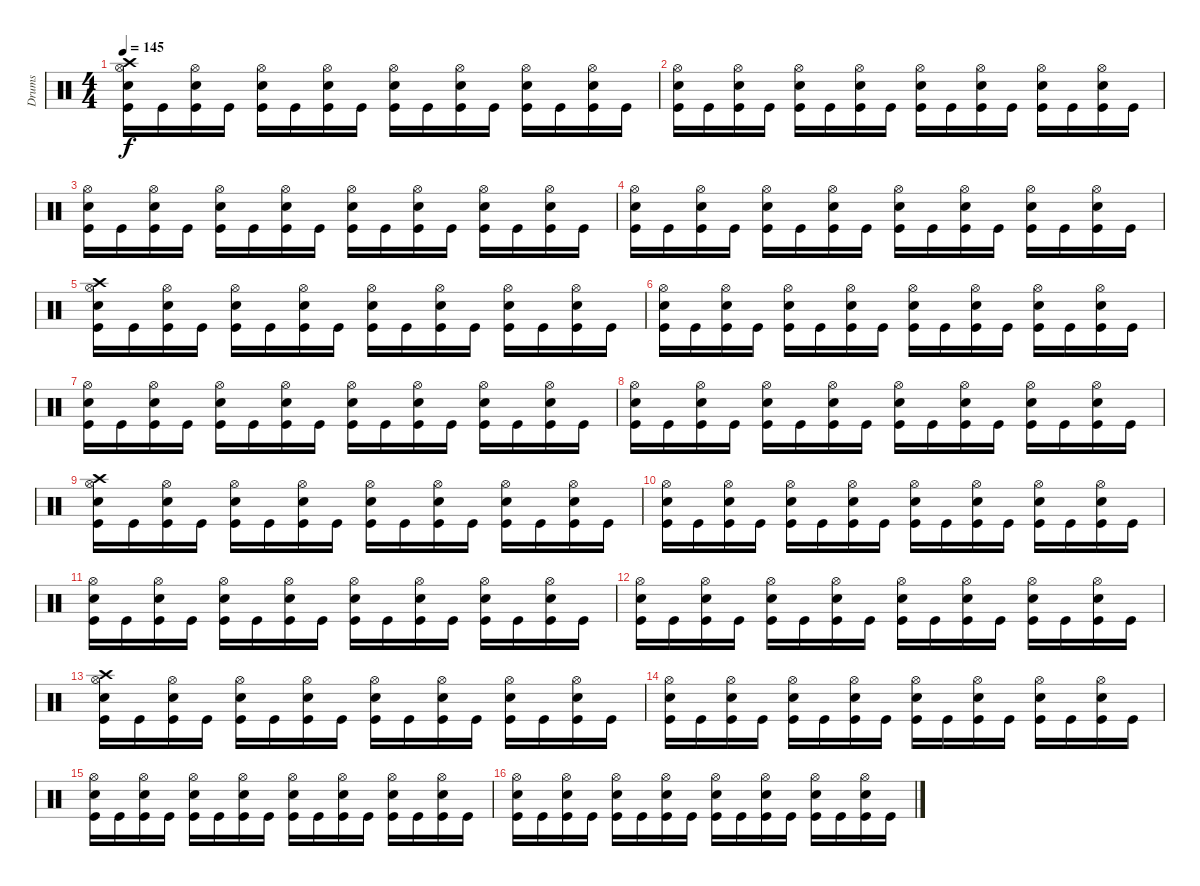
\track ("Drums" "Drums") {instrument percussion}
\staff {score}
\articulation defaults
\ts (4 4)
\tempo 145
\clef neutral
\ks c
("Crash high (hit)" "Hi-Hat (open)" "Electric Snare (hit)" "Kick (hit)").16{dy f} "Kick (hit)".16 ("Hi-Hat (open)" "Electric Snare (hit)" "Kick (hit)").16 "Kick (hit)".16 ("Hi-Hat (open)" "Electric Snare (hit)" "Kick (hit)").16 "Kick (hit)".16 ("Hi-Hat (open)" "Electric Snare (hit)" "Kick (hit)").16 "Kick (hit)".16 ("Hi-Hat (open)" "Electric Snare (hit)" "Kick (hit)").16 "Kick (hit)".16 ("Hi-Hat (open)" "Electric Snare (hit)" "Kick (hit)").16 "Kick (hit)".16 ("Hi-Hat (open)" "Electric Snare (hit)" "Kick (hit)").16 "Kick (hit)".16 ("Hi-Hat (open)" "Electric Snare (hit)" "Kick (hit)").16 "Kick (hit)".16 |
("Hi-Hat (open)" "Electric Snare (hit)" "Kick (hit)").16 "Kick (hit)".16 ("Hi-Hat (open)" "Electric Snare (hit)" "Kick (hit)").16 "Kick (hit)".16 ("Hi-Hat (open)" "Electric Snare (hit)" "Kick (hit)").16 "Kick (hit)".16 ("Hi-Hat (open)" "Electric Snare (hit)" "Kick (hit)").16 "Kick (hit)".16 ("Hi-Hat (open)" "Electric Snare (hit)" "Kick (hit)").16 "Kick (hit)".16 ("Hi-Hat (open)" "Electric Snare (hit)" "Kick (hit)").16 "Kick (hit)".16 ("Hi-Hat (open)" "Electric Snare (hit)" "Kick (hit)").16 "Kick (hit)".16 ("Hi-Hat (open)" "Electric Snare (hit)" "Kick (hit)").16 "Kick (hit)".16 |
("Hi-Hat (open)" "Electric Snare (hit)" "Kick (hit)").16 "Kick (hit)".16 ("Hi-Hat (open)" "Electric Snare (hit)" "Kick (hit)").16 "Kick (hit)".16 ("Hi-Hat (open)" "Electric Snare (hit)" "Kick (hit)").16 "Kick (hit)".16 ("Hi-Hat (open)" "Electric Snare (hit)" "Kick (hit)").16 "Kick (hit)".16 ("Hi-Hat (open)" "Electric Snare (hit)" "Kick (hit)").16 "Kick (hit)".16 ("Hi-Hat (open)" "Electric Snare (hit)" "Kick (hit)").16 "Kick (hit)".16 ("Hi-Hat (open)" "Electric Snare (hit)" "Kick (hit)").16 "Kick (hit)".16 ("Hi-Hat (open)" "Electric Snare (hit)" "Kick (hit)").16 "Kick (hit)".16 |
("Hi-Hat (open)" "Electric Snare (hit)" "Kick (hit)").16 "Kick (hit)".16 ("Hi-Hat (open)" "Electric Snare (hit)" "Kick (hit)").16 "Kick (hit)".16 ("Hi-Hat (open)" "Electric Snare (hit)" "Kick (hit)").16 "Kick (hit)".16 ("Hi-Hat (open)" "Electric Snare (hit)" "Kick (hit)").16 "Kick (hit)".16 ("Hi-Hat (open)" "Electric Snare (hit)" "Kick (hit)").16 "Kick (hit)".16 ("Hi-Hat (open)" "Electric Snare (hit)" "Kick (hit)").16 "Kick (hit)".16 ("Hi-Hat (open)" "Electric Snare (hit)" "Kick (hit)").16 "Kick (hit)".16 ("Hi-Hat (open)" "Electric Snare (hit)" "Kick (hit)").16 "Kick (hit)".16 |
("Crash high (hit)" "Hi-Hat (open)" "Electric Snare (hit)" "Kick (hit)").16 "Kick (hit)".16 ("Hi-Hat (open)" "Electric Snare (hit)" "Kick (hit)").16 "Kick (hit)".16 ("Hi-Hat (open)" "Electric Snare (hit)" "Kick (hit)").16 "Kick (hit)".16 ("Hi-Hat (open)" "Electric Snare (hit)" "Kick (hit)").16 "Kick (hit)".16 ("Hi-Hat (open)" "Electric Snare (hit)" "Kick (hit)").16 "Kick (hit)".16 ("Hi-Hat (open)" "Electric Snare (hit)" "Kick (hit)").16 "Kick (hit)".16 ("Hi-Hat (open)" "Electric Snare (hit)" "Kick (hit)").16 "Kick (hit)".16 ("Hi-Hat (open)" "Electric Snare (hit)" "Kick (hit)").16 "Kick (hit)".16 |
("Hi-Hat (open)" "Electric Snare (hit)" "Kick (hit)").16 "Kick (hit)".16 ("Hi-Hat (open)" "Electric Snare (hit)" "Kick (hit)").16 "Kick (hit)".16 ("Hi-Hat (open)" "Electric Snare (hit)" "Kick (hit)").16 "Kick (hit)".16 ("Hi-Hat (open)" "Electric Snare (hit)" "Kick (hit)").16 "Kick (hit)".16 ("Hi-Hat (open)" "Electric Snare (hit)" "Kick (hit)").16 "Kick (hit)".16 ("Hi-Hat (open)" "Electric Snare (hit)" "Kick (hit)").16 "Kick (hit)".16 ("Hi-Hat (open)" "Electric Snare (hit)" "Kick (hit)").16 "Kick (hit)".16 ("Hi-Hat (open)" "Electric Snare (hit)" "Kick (hit)").16 "Kick (hit)".16 |
("Hi-Hat (open)" "Electric Snare (hit)" "Kick (hit)").16 "Kick (hit)".16 ("Hi-Hat (open)" "Electric Snare (hit)" "Kick (hit)").16 "Kick (hit)".16 ("Hi-Hat (open)" "Electric Snare (hit)" "Kick (hit)").16 "Kick (hit)".16 ("Hi-Hat (open)" "Electric Snare (hit)" "Kick (hit)").16 "Kick (hit)".16 ("Hi-Hat (open)" "Electric Snare (hit)" "Kick (hit)").16 "Kick (hit)".16 ("Hi-Hat (open)" "Electric Snare (hit)" "Kick (hit)").16 "Kick (hit)".16 ("Hi-Hat (open)" "Electric Snare (hit)" "Kick (hit)").16 "Kick (hit)".16 ("Hi-Hat (open)" "Electric Snare (hit)" "Kick (hit)").16 "Kick (hit)".16 |
("Hi-Hat (open)" "Electric Snare (hit)" "Kick (hit)").16 "Kick (hit)".16 ("Hi-Hat (open)" "Electric Snare (hit)" "Kick (hit)").16 "Kick (hit)".16 ("Hi-Hat (open)" "Electric Snare (hit)" "Kick (hit)").16 "Kick (hit)".16 ("Hi-Hat (open)" "Electric Snare (hit)" "Kick (hit)").16 "Kick (hit)".16 ("Hi-Hat (open)" "Electric Snare (hit)" "Kick (hit)").16 "Kick (hit)".16 ("Hi-Hat (open)" "Electric Snare (hit)" "Kick (hit)").16 "Kick (hit)".16 ("Hi-Hat (open)" "Electric Snare (hit)" "Kick (hit)").16 "Kick (hit)".16 ("Hi-Hat (open)" "Electric Snare (hit)" "Kick (hit)").16 "Kick (hit)".16 |
("Crash high (hit)" "Hi-Hat (open)" "Electric Snare (hit)" "Kick (hit)").16 "Kick (hit)".16 ("Hi-Hat (open)" "Electric Snare (hit)" "Kick (hit)").16 "Kick (hit)".16 ("Hi-Hat (open)" "Electric Snare (hit)" "Kick (hit)").16 "Kick (hit)".16 ("Hi-Hat (open)" "Electric Snare (hit)" "Kick (hit)").16 "Kick (hit)".16 ("Hi-Hat (open)" "Electric Snare (hit)" "Kick (hit)").16 "Kick (hit)".16 ("Hi-Hat (open)" "Electric Snare (hit)" "Kick (hit)").16 "Kick (hit)".16 ("Hi-Hat (open)" "Electric Snare (hit)" "Kick (hit)").16 "Kick (hit)".16 ("Hi-Hat (open)" "Electric Snare (hit)" "Kick (hit)").16 "Kick (hit)".16 |
("Hi-Hat (open)" "Electric Snare (hit)" "Kick (hit)").16 "Kick (hit)".16 ("Hi-Hat (open)" "Electric Snare (hit)" "Kick (hit)").16 "Kick (hit)".16 ("Hi-Hat (open)" "Electric Snare (hit)" "Kick (hit)").16 "Kick (hit)".16 ("Hi-Hat (open)" "Electric Snare (hit)" "Kick (hit)").16 "Kick (hit)".16 ("Hi-Hat (open)" "Electric Snare (hit)" "Kick (hit)").16 "Kick (hit)".16 ("Hi-Hat (open)" "Electric Snare (hit)" "Kick (hit)").16 "Kick (hit)".16 ("Hi-Hat (open)" "Electric Snare (hit)" "Kick (hit)").16 "Kick (hit)".16 ("Hi-Hat (open)" "Electric Snare (hit)" "Kick (hit)").16 "Kick (hit)".16 |
("Hi-Hat (open)" "Electric Snare (hit)" "Kick (hit)").16 "Kick (hit)".16 ("Hi-Hat (open)" "Electric Snare (hit)" "Kick (hit)").16 "Kick (hit)".16 ("Hi-Hat (open)" "Electric Snare (hit)" "Kick (hit)").16 "Kick (hit)".16 ("Hi-Hat (open)" "Electric Snare (hit)" "Kick (hit)").16 "Kick (hit)".16 ("Hi-Hat (open)" "Electric Snare (hit)" "Kick (hit)").16 "Kick (hit)".16 ("Hi-Hat (open)" "Electric Snare (hit)" "Kick (hit)").16 "Kick (hit)".16 ("Hi-Hat (open)" "Electric Snare (hit)" "Kick (hit)").16 "Kick (hit)".16 ("Hi-Hat (open)" "Electric Snare (hit)" "Kick (hit)").16 "Kick (hit)".16 |
("Hi-Hat (open)" "Electric Snare (hit)" "Kick (hit)").16 "Kick (hit)".16 ("Hi-Hat (open)" "Electric Snare (hit)" "Kick (hit)").16 "Kick (hit)".16 ("Hi-Hat (open)" "Electric Snare (hit)" "Kick (hit)").16 "Kick (hit)".16 ("Hi-Hat (open)" "Electric Snare (hit)" "Kick (hit)").16 "Kick (hit)".16 ("Hi-Hat (open)" "Electric Snare (hit)" "Kick (hit)").16 "Kick (hit)".16 ("Hi-Hat (open)" "Electric Snare (hit)" "Kick (hit)").16 "Kick (hit)".16 ("Hi-Hat (open)" "Electric Snare (hit)" "Kick (hit)").16 "Kick (hit)".16 ("Hi-Hat (open)" "Electric Snare (hit)" "Kick (hit)").16 "Kick (hit)".16 |
("Crash high (hit)" "Hi-Hat (open)" "Electric Snare (hit)" "Kick (hit)").16 "Kick (hit)".16 ("Hi-Hat (open)" "Electric Snare (hit)" "Kick (hit)").16 "Kick (hit)".16 ("Hi-Hat (open)" "Electric Snare (hit)" "Kick (hit)").16 "Kick (hit)".16 ("Hi-Hat (open)" "Electric Snare (hit)" "Kick (hit)").16 "Kick (hit)".16 ("Hi-Hat (open)" "Electric Snare (hit)" "Kick (hit)").16 "Kick (hit)".16 ("Hi-Hat (open)" "Electric Snare (hit)" "Kick (hit)").16 "Kick (hit)".16 ("Hi-Hat (open)" "Electric Snare (hit)" "Kick (hit)").16 "Kick (hit)".16 ("Hi-Hat (open)" "Electric Snare (hit)" "Kick (hit)").16 "Kick (hit)".16 |
("Hi-Hat (open)" "Electric Snare (hit)" "Kick (hit)").16 "Kick (hit)".16 ("Hi-Hat (open)" "Electric Snare (hit)" "Kick (hit)").16 "Kick (hit)".16 ("Hi-Hat (open)" "Electric Snare (hit)" "Kick (hit)").16 "Kick (hit)".16 ("Hi-Hat (open)" "Electric Snare (hit)" "Kick (hit)").16 "Kick (hit)".16 ("Hi-Hat (open)" "Electric Snare (hit)" "Kick (hit)").16 "Kick (hit)".16 ("Hi-Hat (open)" "Electric Snare (hit)" "Kick (hit)").16 "Kick (hit)".16 ("Hi-Hat (open)" "Electric Snare (hit)" "Kick (hit)").16 "Kick (hit)".16 ("Hi-Hat (open)" "Electric Snare (hit)" "Kick (hit)").16 "Kick (hit)".16 |
("Hi-Hat (open)" "Electric Snare (hit)" "Kick (hit)").16 "Kick (hit)".16 ("Hi-Hat (open)" "Electric Snare (hit)" "Kick (hit)").16 "Kick (hit)".16 ("Hi-Hat (open)" "Electric Snare (hit)" "Kick (hit)").16 "Kick (hit)".16 ("Hi-Hat (open)" "Electric Snare (hit)" "Kick (hit)").16 "Kick (hit)".16 ("Hi-Hat (open)" "Electric Snare (hit)" "Kick (hit)").16 "Kick (hit)".16 ("Hi-Hat (open)" "Electric Snare (hit)" "Kick (hit)").16 "Kick (hit)".16 ("Hi-Hat (open)" "Electric Snare (hit)" "Kick (hit)").16 "Kick (hit)".16 ("Hi-Hat (open)" "Electric Snare (hit)" "Kick (hit)").16 "Kick (hit)".16 |
("Hi-Hat (open)" "Electric Snare (hit)" "Kick (hit)").16 "Kick (hit)".16 ("Hi-Hat (open)" "Electric Snare (hit)" "Kick (hit)").16 "Kick (hit)".16 ("Hi-Hat (open)" "Electric Snare (hit)" "Kick (hit)").16 "Kick (hit)".16 ("Hi-Hat (open)" "Electric Snare (hit)" "Kick (hit)").16 "Kick (hit)".16 ("Hi-Hat (open)" "Electric Snare (hit)" "Kick (hit)").16 "Kick (hit)".16 ("Hi-Hat (open)" "Electric Snare (hit)" "Kick (hit)").16 "Kick (hit)".16 ("Hi-Hat (open)" "Electric Snare (hit)" "Kick (hit)").16 "Kick (hit)".16 ("Hi-Hat (open)" "Electric Snare (hit)" "Kick (hit)").16 "Kick (hit)".16
